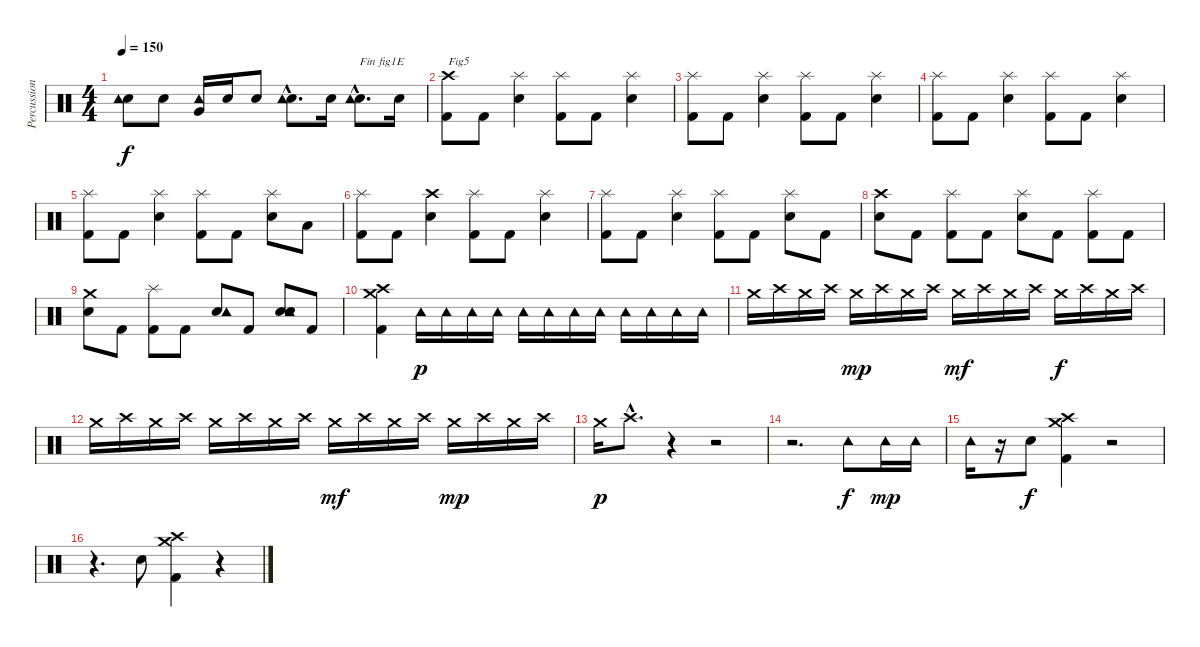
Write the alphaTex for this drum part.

\track ("Percussions" "Percussion") {instrument percussion}
\staff {score}
\articulation defaults
\ts (4 4)
\tempo 150
\clef neutral
\ks c
("Electric Snare (hit)" "Tambourine (hit)").8{dy f} "Electric Snare (hit)".8 ("Very Low Tom (hit)" "Tambourine (hit)").16 "Electric Snare (hit)".16 "Electric Snare (hit)".8 ("Electric Snare (hit)"{hac} "Tambourine (hit)"{hac}).8{d} "Electric Snare (hit)".16 ("Electric Snare (hit)"{hac} "Tambourine (hit)"{hac}).8{d txt "Fin fig1E"} "Electric Snare (hit)".16 |
("Kick (hit) 2" "Crash high (hit)").8{txt "Fig5"} "Kick (hit) 2".8 ("Electric Snare (hit)" "Splash (hit)").4 ("Kick (hit) 2" "Splash (hit)").8 "Kick (hit) 2".8 ("Electric Snare (hit)" "Splash (hit)").4 |
("Kick (hit) 2" "Splash (hit)").8 "Kick (hit) 2".8 ("Electric Snare (hit)" "Splash (hit)").4 ("Kick (hit) 2" "Splash (hit)").8 "Kick (hit) 2".8 ("Electric Snare (hit)" "Splash (hit)").4 |
("Kick (hit) 2" "Splash (hit)").8 "Kick (hit) 2".8 ("Electric Snare (hit)" "Splash (hit)").4 ("Kick (hit) 2" "Splash (hit)").8 "Kick (hit) 2".8 ("Electric Snare (hit)" "Splash (hit)").4 |
("Kick (hit) 2" "Splash (hit)").8 "Kick (hit) 2".8 ("Electric Snare (hit)" "Splash (hit)").4 ("Kick (hit) 2" "Splash (hit)").8 "Kick (hit) 2".8 ("Electric Snare (hit)" "Splash (hit)").8 "Low Tom (hit)".8 |
("Kick (hit) 2" "Splash (hit)").8 "Kick (hit) 2".8 ("Electric Snare (hit)" "Crash high (hit)").4 ("Kick (hit) 2" "Splash (hit)").8 "Kick (hit) 2".8 ("Electric Snare (hit)" "Splash (hit)").4 |
("Kick (hit) 2" "Splash (hit)").8 "Kick (hit) 2".8 ("Electric Snare (hit)" "Splash (hit)").4 ("Kick (hit) 2" "Splash (hit)").8 "Kick (hit) 2".8 ("Electric Snare (hit)" "Splash (hit)").8 "Kick (hit) 2".8 |
("Electric Snare (hit)" "Crash high (hit)").8 "Kick (hit) 2".8 ("Kick (hit) 2" "Splash (hit)").8 "Kick (hit) 2".8 ("Electric Snare (hit)" "Splash (hit)").8 "Kick (hit) 2".8 ("Kick (hit) 2" "Splash (hit)").8 "Kick (hit) 2".8 |
("Electric Snare (hit)" "Crash medium (hit)").8 "Kick (hit) 2".8 ("Kick (hit) 2" "Splash (hit)").8 "Kick (hit) 2".8 ("Electric Snare (hit)" "Tambourine (hit)").8 "Kick (hit) 2".8 ("Electric Snare (hit)" "Snare (hit) 2" "Tambourine (hit)").8 "Kick (hit) 2".8 |
("Kick (hit) 2" "Crash medium (hit)" "Crash high (hit)").4 "Tambourine (hit)".16{dy p} "Tambourine (hit)".16 "Tambourine (hit)".16 "Tambourine (hit)".16 "Tambourine (hit)".16 "Tambourine (hit)".16 "Tambourine (hit)".16 "Tambourine (hit)".16 "Tambourine (hit)".16 "Tambourine (hit)".16 "Tambourine (hit)".16 "Tambourine (hit)".16 |
"Crash medium (hit)".16 "Crash high (hit)".16 "Crash medium (hit)".16 "Crash high (hit)".16 "Crash medium (hit)".16{dy mp} "Crash high (hit)".16 "Crash medium (hit)".16 "Crash high (hit)".16 "Crash medium (hit)".16{dy mf} "Crash high (hit)".16 "Crash medium (hit)".16 "Crash high (hit)".16 "Crash medium (hit)".16{dy f} "Crash high (hit)".16 "Crash medium (hit)".16 "Crash high (hit)".16 |
"Crash medium (hit)".16 "Crash high (hit)".16 "Crash medium (hit)".16 "Crash high (hit)".16 "Crash medium (hit)".16 "Crash high (hit)".16 "Crash medium (hit)".16 "Crash high (hit)".16 "Crash medium (hit)".16{dy mf} "Crash high (hit)".16 "Crash medium (hit)".16 "Crash high (hit)".16 "Crash medium (hit)".16{dy mp} "Crash high (hit)".16 "Crash medium (hit)".16 "Crash high (hit)".16 |
"Crash medium (hit)".16{dy p} "Crash high (hit)"{hac}.8{d} r.4 r.2 |
r.2{d} "Tambourine (hit)".8{dy f} "Tambourine (hit)".16{dy mp} "Tambourine (hit)".16 |
"Tambourine (hit)".16 r.16 "Electric Snare (hit)".8{dy f} ("Kick (hit) 2" "Crash medium (hit)" "Crash high (hit)").4 r.2 |
r.4{d} "Electric Snare (hit)".8 ("Kick (hit) 2" "Crash medium (hit)" "Crash high (hit)").4 r.4
